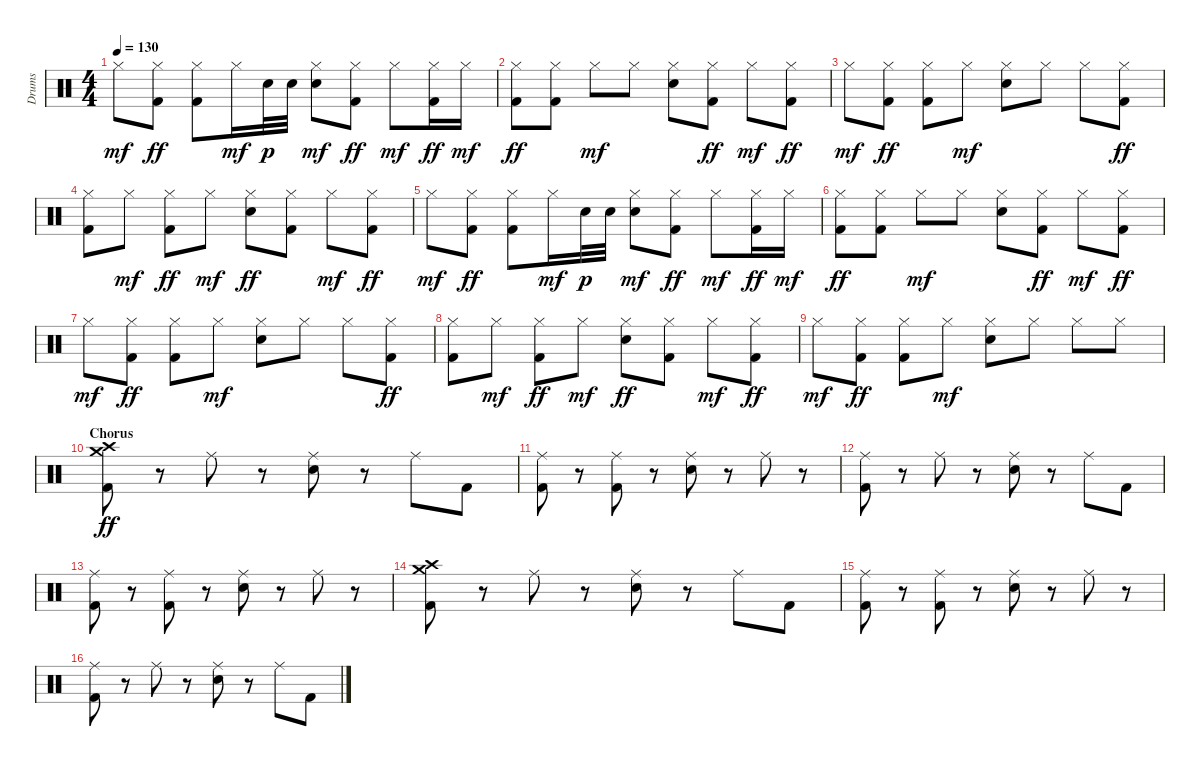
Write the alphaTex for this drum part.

\track ("Drums" "Drums") {instrument percussion}
\staff {score}
\articulation defaults
\ts (4 4)
\tempo 130
\clef neutral
\ks c "Hi-Hat (closed)".8{dy mf}
("Hi-Hat (closed)" "Kick (hit) 2").8{dy ff} ("Hi-Hat (closed)" "Kick (hit) 2").8 "Hi-Hat (closed)".16{dy mf} "Snare (hit) 2".32{dy p} "Snare (hit) 2".32 ("Hi-Hat (closed)" "Snare (hit) 2").8{dy mf} ("Hi-Hat (closed)" "Kick (hit) 2").8{dy ff} "Hi-Hat (closed)".8{dy mf} ("Hi-Hat (closed)" "Kick (hit) 2").16{dy ff} "Hi-Hat (closed)".16{dy mf} |
("Hi-Hat (closed)" "Kick (hit) 2").8{dy ff} ("Hi-Hat (closed)" "Kick (hit) 2").8 "Hi-Hat (closed)".8{dy mf} "Hi-Hat (closed)".8 ("Hi-Hat (closed)" "Snare (hit) 2").8 ("Hi-Hat (closed)" "Kick (hit) 2").8{dy ff} "Hi-Hat (closed)".8{dy mf} ("Hi-Hat (closed)" "Kick (hit) 2").8{dy ff} |
"Hi-Hat (closed)".8{dy mf} ("Hi-Hat (closed)" "Kick (hit) 2").8{dy ff} ("Hi-Hat (closed)" "Kick (hit) 2").8 "Hi-Hat (closed)".8{dy mf} ("Hi-Hat (closed)" "Snare (hit) 2").8 "Hi-Hat (closed)".8 "Hi-Hat (closed)".8 ("Hi-Hat (closed)" "Kick (hit) 2").8{dy ff} |
("Hi-Hat (closed)" "Kick (hit) 2").8 "Hi-Hat (closed)".8{dy mf} ("Hi-Hat (closed)" "Kick (hit) 2").8{dy ff} "Hi-Hat (closed)".8{dy mf} ("Hi-Hat (closed)" "Snare (hit) 2").8{dy ff} ("Hi-Hat (closed)" "Kick (hit) 2").8 "Hi-Hat (closed)".8{dy mf} ("Hi-Hat (closed)" "Kick (hit) 2").8{dy ff} |
"Hi-Hat (closed)".8{dy mf} ("Hi-Hat (closed)" "Kick (hit) 2").8{dy ff} ("Hi-Hat (closed)" "Kick (hit) 2").8 "Hi-Hat (closed)".16{dy mf} "Snare (hit) 2".32{dy p} "Snare (hit) 2".32 ("Hi-Hat (closed)" "Snare (hit) 2").8{dy mf} ("Hi-Hat (closed)" "Kick (hit) 2").8{dy ff} "Hi-Hat (closed)".8{dy mf} ("Hi-Hat (closed)" "Kick (hit) 2").16{dy ff} "Hi-Hat (closed)".16{dy mf} |
("Hi-Hat (closed)" "Kick (hit) 2").8{dy ff} ("Hi-Hat (closed)" "Kick (hit) 2").8 "Hi-Hat (closed)".8{dy mf} "Hi-Hat (closed)".8 ("Hi-Hat (closed)" "Snare (hit) 2").8 ("Hi-Hat (closed)" "Kick (hit) 2").8{dy ff} "Hi-Hat (closed)".8{dy mf} ("Hi-Hat (closed)" "Kick (hit) 2").8{dy ff} |
"Hi-Hat (closed)".8{dy mf} ("Hi-Hat (closed)" "Kick (hit) 2").8{dy ff} ("Hi-Hat (closed)" "Kick (hit) 2").8 "Hi-Hat (closed)".8{dy mf} ("Hi-Hat (closed)" "Snare (hit) 2").8 "Hi-Hat (closed)".8 "Hi-Hat (closed)".8 ("Hi-Hat (closed)" "Kick (hit) 2").8{dy ff} |
("Hi-Hat (closed)" "Kick (hit) 2").8 "Hi-Hat (closed)".8{dy mf} ("Hi-Hat (closed)" "Kick (hit) 2").8{dy ff} "Hi-Hat (closed)".8{dy mf} ("Hi-Hat (closed)" "Snare (hit) 2").8{dy ff} ("Hi-Hat (closed)" "Kick (hit) 2").8 "Hi-Hat (closed)".8{dy mf} ("Hi-Hat (closed)" "Kick (hit) 2").8{dy ff} |
"Hi-Hat (closed)".8{dy mf} ("Hi-Hat (closed)" "Kick (hit) 2").8{dy ff} ("Hi-Hat (closed)" "Kick (hit) 2").8 "Hi-Hat (closed)".8{dy mf} ("Hi-Hat (closed)" "Snare (hit) 2").8 "Hi-Hat (closed)".8 "Hi-Hat (closed)".8 "Hi-Hat (closed)".8 |
\section ("" "Chorus")
("Kick (hit) 2" "Crash medium (hit)" "Crash high (hit)").8{dy ff volume 10} r.8 "Ride (middle)".8 r.8 ("Ride (middle)" "Snare (hit) 2").8 r.8 "Ride (middle)".8 "Kick (hit) 2".8 |
("Ride (middle)" "Kick (hit) 2").8 r.8 ("Ride (middle)" "Kick (hit) 2").8 r.8 ("Ride (middle)" "Snare (hit) 2").8 r.8 "Ride (middle)".8 r.8 |
("Ride (middle)" "Kick (hit) 2").8 r.8 "Ride (middle)".8 r.8 ("Ride (middle)" "Snare (hit) 2").8 r.8 "Ride (middle)".8 "Kick (hit) 2".8 |
("Ride (middle)" "Kick (hit) 2").8 r.8 ("Ride (middle)" "Kick (hit) 2").8 r.8 ("Ride (middle)" "Snare (hit) 2").8 r.8 "Ride (middle)".8 r.8 |
("Kick (hit) 2" "Crash medium (hit)" "Crash high (hit)").8 r.8 "Ride (middle)".8 r.8 ("Ride (middle)" "Snare (hit) 2").8 r.8 "Ride (middle)".8 "Kick (hit) 2".8 |
("Ride (middle)" "Kick (hit) 2").8 r.8 ("Ride (middle)" "Kick (hit) 2").8 r.8 ("Ride (middle)" "Snare (hit) 2").8 r.8 "Ride (middle)".8 r.8 |
("Ride (middle)" "Kick (hit) 2").8 r.8 "Ride (middle)".8 r.8 ("Ride (middle)" "Snare (hit) 2").8 r.8 "Ride (middle)".8 "Kick (hit) 2".8
